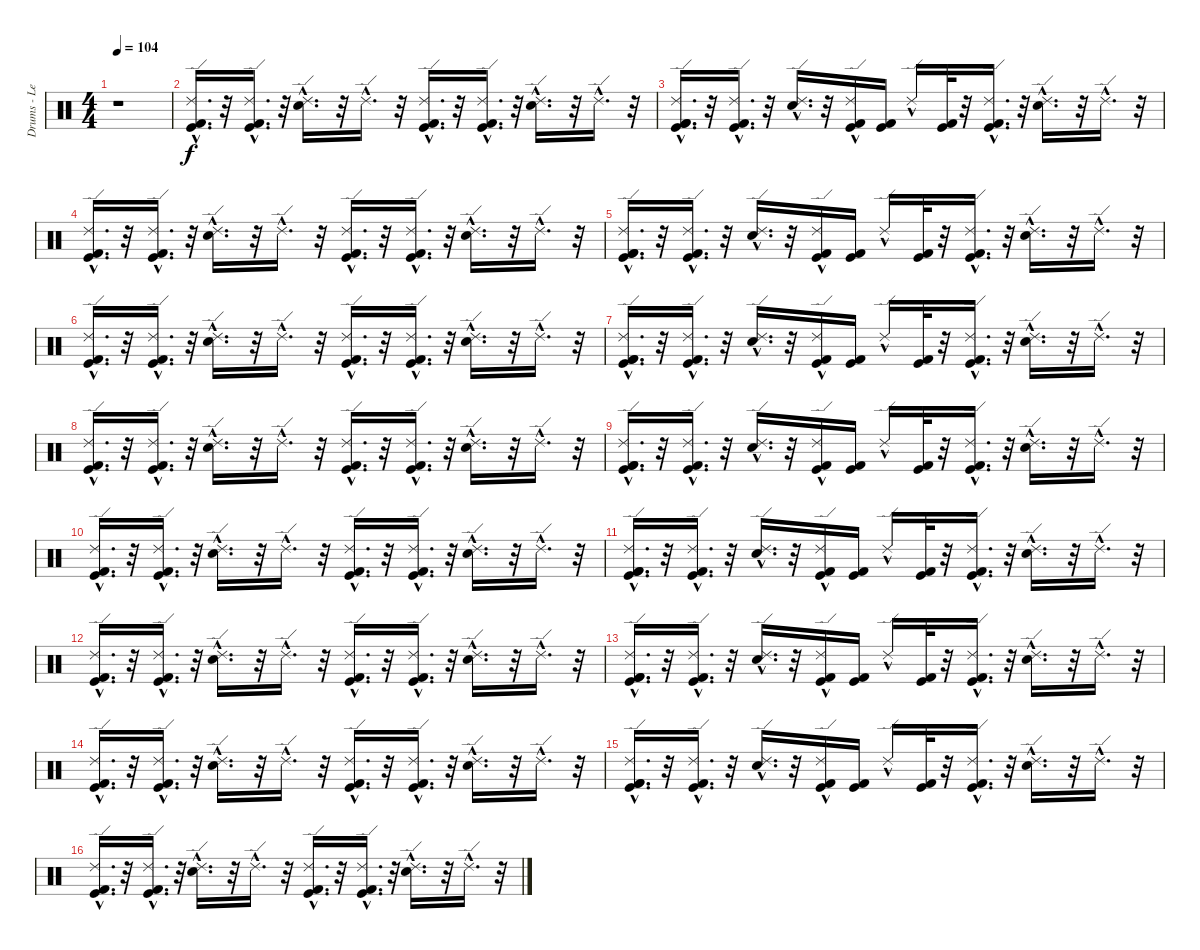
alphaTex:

\track ("Drums - Les Claypool" "Drums - Le") {instrument percussion}
\staff {score}
\articulation defaults
\ts (4 4)
\tempo 104
\clef neutral
\ks c
r.1{dy f} |
("Ride (edge) 2"{hac} "Kick (hit) 2"{hac} "Kick (hit)"{hac}).16{d} r.32 ("Kick (hit) 2"{hac} "Ride (edge) 2"{hac} "Kick (hit)"{hac}).16{d} r.32 ("Ride (edge) 2"{hac} "Snare (hit) 2"{hac}).16{d} r.32 "Ride (edge) 2"{hac}.16{d} r.32 ("Kick (hit) 2"{hac} "Ride (edge) 2"{hac} "Kick (hit)"{hac}).16{d} r.32 ("Kick (hit) 2"{hac} "Kick (hit)"{hac} "Ride (edge) 2"{hac}).16{d} r.32 ("Ride (edge) 2"{hac} "Snare (hit) 2"{hac}).16{d} r.32 "Ride (edge) 2"{hac}.16{d} r.32 |
("Kick (hit) 2"{hac} "Ride (edge) 2"{hac} "Kick (hit) 2"{hac} "Kick (hit)"{hac}).16{d} r.32 ("Ride (edge) 2"{hac} "Kick (hit) 2"{hac} "Kick (hit)"{hac}).16{d} r.32 ("Ride (edge) 2"{hac} "Snare (hit) 2"{hac}).16{d} r.32 ("Kick (hit) 2" "Kick (hit)" "Ride (edge) 2"{hac}).16 ("Kick (hit) 2" "Kick (hit)").16 "Ride (edge) 2"{hac}.16 ("Kick (hit) 2" "Kick (hit)").32 r.32 ("Kick (hit) 2"{hac} "Kick (hit)" "Ride (edge) 2"{hac}).16{d} r.32 ("Snare (hit) 2"{hac} "Ride (edge) 2"{hac}).16{d} r.32 "Ride (edge) 2"{hac}.16{d} r.32 |
("Ride (edge) 2"{hac} "Kick (hit) 2"{hac} "Kick (hit)"{hac}).16{d} r.32 ("Kick (hit) 2"{hac} "Ride (edge) 2"{hac} "Kick (hit)"{hac}).16{d} r.32 ("Ride (edge) 2"{hac} "Snare (hit) 2"{hac}).16{d} r.32 "Ride (edge) 2"{hac}.16{d} r.32 ("Kick (hit) 2"{hac} "Ride (edge) 2"{hac} "Kick (hit)"{hac}).16{d} r.32 ("Kick (hit) 2"{hac} "Kick (hit)"{hac} "Ride (edge) 2"{hac}).16{d} r.32 ("Ride (edge) 2"{hac} "Snare (hit) 2"{hac}).16{d} r.32 "Ride (edge) 2"{hac}.16{d} r.32 |
("Kick (hit) 2"{hac} "Ride (edge) 2"{hac} "Kick (hit) 2"{hac} "Kick (hit)"{hac}).16{d} r.32 ("Ride (edge) 2"{hac} "Kick (hit) 2"{hac} "Kick (hit)"{hac}).16{d} r.32 ("Ride (edge) 2"{hac} "Snare (hit) 2"{hac}).16{d} r.32 ("Kick (hit) 2" "Kick (hit)" "Ride (edge) 2"{hac}).16 ("Kick (hit) 2" "Kick (hit)").16 "Ride (edge) 2"{hac}.16 ("Kick (hit) 2" "Kick (hit)").32 r.32 ("Kick (hit) 2"{hac} "Kick (hit)" "Ride (edge) 2"{hac}).16{d} r.32 ("Ride (edge) 2"{hac} "Snare (hit) 2"{hac}).16{d} r.32 "Ride (edge) 2"{hac}.16{d} r.32 |
("Ride (edge) 2"{hac} "Kick (hit) 2"{hac} "Kick (hit)"{hac}).16{d} r.32 ("Kick (hit) 2"{hac} "Ride (edge) 2"{hac} "Kick (hit)"{hac}).16{d} r.32 ("Ride (edge) 2"{hac} "Snare (hit) 2"{hac}).16{d} r.32 "Ride (edge) 2"{hac}.16{d} r.32 ("Kick (hit) 2"{hac} "Ride (edge) 2"{hac} "Kick (hit)"{hac}).16{d} r.32 ("Kick (hit) 2"{hac} "Kick (hit)"{hac} "Ride (edge) 2"{hac}).16{d} r.32 ("Ride (edge) 2"{hac} "Snare (hit) 2"{hac}).16{d} r.32 "Ride (edge) 2"{hac}.16{d} r.32 |
("Kick (hit) 2"{hac} "Ride (edge) 2"{hac} "Kick (hit) 2"{hac} "Kick (hit)"{hac}).16{d} r.32 ("Ride (edge) 2"{hac} "Kick (hit) 2"{hac} "Kick (hit)"{hac}).16{d} r.32 ("Ride (edge) 2"{hac} "Snare (hit) 2"{hac}).16{d} r.32 ("Kick (hit) 2" "Kick (hit)" "Ride (edge) 2"{hac}).16 ("Kick (hit) 2" "Kick (hit)").16 "Ride (edge) 2"{hac}.16 ("Kick (hit) 2" "Kick (hit)").32 r.32 ("Kick (hit) 2"{hac} "Kick (hit)" "Ride (edge) 2"{hac}).16{d} r.32 ("Ride (edge) 2"{hac} "Snare (hit) 2"{hac}).16{d} r.32 "Ride (edge) 2"{hac}.16{d} r.32 |
("Ride (edge) 2"{hac} "Kick (hit) 2"{hac} "Kick (hit)"{hac}).16{d} r.32 ("Kick (hit) 2"{hac} "Ride (edge) 2"{hac} "Kick (hit)"{hac}).16{d} r.32 ("Ride (edge) 2"{hac} "Snare (hit) 2"{hac}).16{d} r.32 "Ride (edge) 2"{hac}.16{d} r.32 ("Kick (hit) 2"{hac} "Ride (edge) 2"{hac} "Kick (hit)"{hac}).16{d} r.32 ("Kick (hit) 2"{hac} "Kick (hit)"{hac} "Ride (edge) 2"{hac}).16{d} r.32 ("Ride (edge) 2"{hac} "Snare (hit) 2"{hac}).16{d} r.32 "Ride (edge) 2"{hac}.16{d} r.32 |
("Kick (hit) 2"{hac} "Ride (edge) 2"{hac} "Kick (hit) 2"{hac} "Kick (hit)"{hac}).16{d} r.32 ("Ride (edge) 2"{hac} "Kick (hit) 2"{hac} "Kick (hit)"{hac}).16{d} r.32 ("Ride (edge) 2"{hac} "Snare (hit) 2"{hac}).16{d} r.32 ("Kick (hit) 2" "Kick (hit)" "Ride (edge) 2"{hac}).16 ("Kick (hit) 2" "Kick (hit)").16 "Ride (edge) 2"{hac}.16 ("Kick (hit) 2" "Kick (hit)").32 r.32 ("Kick (hit) 2"{hac} "Kick (hit)" "Ride (edge) 2"{hac}).16{d} r.32 ("Ride (edge) 2"{hac} "Snare (hit) 2"{hac}).16{d} r.32 "Ride (edge) 2"{hac}.16{d} r.32 |
("Ride (edge) 2"{hac} "Kick (hit) 2"{hac} "Kick (hit)"{hac}).16{d} r.32 ("Kick (hit) 2"{hac} "Ride (edge) 2"{hac} "Kick (hit)"{hac}).16{d} r.32 ("Ride (edge) 2"{hac} "Snare (hit) 2"{hac}).16{d} r.32 "Ride (edge) 2"{hac}.16{d} r.32 ("Kick (hit) 2"{hac} "Ride (edge) 2"{hac} "Kick (hit)"{hac}).16{d} r.32 ("Kick (hit) 2"{hac} "Kick (hit)"{hac} "Ride (edge) 2"{hac}).16{d} r.32 ("Ride (edge) 2"{hac} "Snare (hit) 2"{hac}).16{d} r.32 "Ride (edge) 2"{hac}.16{d} r.32 |
("Kick (hit) 2"{hac} "Ride (edge) 2"{hac} "Kick (hit) 2"{hac} "Kick (hit)"{hac}).16{d} r.32 ("Ride (edge) 2"{hac} "Kick (hit) 2"{hac} "Kick (hit)"{hac}).16{d} r.32 ("Ride (edge) 2"{hac} "Snare (hit) 2"{hac}).16{d} r.32 ("Kick (hit) 2" "Kick (hit)" "Ride (edge) 2"{hac}).16 ("Kick (hit) 2" "Kick (hit)").16 "Ride (edge) 2"{hac}.16 ("Kick (hit) 2" "Kick (hit)").32 r.32 ("Kick (hit) 2"{hac} "Kick (hit)" "Ride (edge) 2"{hac}).16{d} r.32 ("Ride (edge) 2"{hac} "Snare (hit) 2"{hac}).16{d} r.32 "Ride (edge) 2"{hac}.16{d} r.32 |
("Ride (edge) 2"{hac} "Kick (hit) 2"{hac} "Kick (hit)"{hac}).16{d} r.32 ("Kick (hit) 2"{hac} "Ride (edge) 2"{hac} "Kick (hit)"{hac}).16{d} r.32 ("Ride (edge) 2"{hac} "Snare (hit) 2"{hac}).16{d} r.32 "Ride (edge) 2"{hac}.16{d} r.32 ("Kick (hit) 2"{hac} "Ride (edge) 2"{hac} "Kick (hit)"{hac}).16{d} r.32 ("Kick (hit) 2"{hac} "Kick (hit)"{hac} "Ride (edge) 2"{hac}).16{d} r.32 ("Ride (edge) 2"{hac} "Snare (hit) 2"{hac}).16{d} r.32 "Ride (edge) 2"{hac}.16{d} r.32 |
("Kick (hit) 2"{hac} "Ride (edge) 2"{hac} "Kick (hit) 2"{hac} "Kick (hit)"{hac}).16{d} r.32 ("Ride (edge) 2"{hac} "Kick (hit) 2"{hac} "Kick (hit)"{hac}).16{d} r.32 ("Ride (edge) 2"{hac} "Snare (hit) 2"{hac}).16{d} r.32 ("Kick (hit) 2" "Kick (hit)" "Ride (edge) 2"{hac}).16 ("Kick (hit) 2" "Kick (hit)").16 "Ride (edge) 2"{hac}.16 ("Kick (hit) 2" "Kick (hit)").32 r.32 ("Kick (hit) 2"{hac} "Kick (hit)" "Ride (edge) 2"{hac}).16{d} r.32 ("Ride (edge) 2"{hac} "Snare (hit) 2"{hac}).16{d} r.32 "Ride (edge) 2"{hac}.16{d} r.32 |
("Ride (edge) 2"{hac} "Kick (hit) 2"{hac} "Kick (hit)"{hac}).16{d} r.32 ("Kick (hit) 2"{hac} "Ride (edge) 2"{hac} "Kick (hit)"{hac}).16{d} r.32 ("Ride (edge) 2"{hac} "Snare (hit) 2"{hac}).16{d} r.32 "Ride (edge) 2"{hac}.16{d} r.32 ("Kick (hit) 2"{hac} "Ride (edge) 2"{hac} "Kick (hit)"{hac}).16{d} r.32 ("Kick (hit) 2"{hac} "Kick (hit)"{hac} "Ride (edge) 2"{hac}).16{d} r.32 ("Ride (edge) 2"{hac} "Snare (hit) 2"{hac}).16{d} r.32 "Ride (edge) 2"{hac}.16{d} r.32 |
("Kick (hit) 2"{hac} "Ride (edge) 2"{hac} "Kick (hit) 2"{hac} "Kick (hit)"{hac}).16{d} r.32 ("Ride (edge) 2"{hac} "Kick (hit) 2"{hac} "Kick (hit)"{hac}).16{d} r.32 ("Ride (edge) 2"{hac} "Snare (hit) 2"{hac}).16{d} r.32 ("Kick (hit) 2" "Kick (hit)" "Ride (edge) 2"{hac}).16 ("Kick (hit) 2" "Kick (hit)").16 "Ride (edge) 2"{hac}.16 ("Kick (hit) 2" "Kick (hit)").32 r.32 ("Kick (hit) 2"{hac} "Kick (hit)" "Ride (edge) 2"{hac}).16{d} r.32 ("Ride (edge) 2"{hac} "Snare (hit) 2"{hac}).16{d} r.32 "Ride (edge) 2"{hac}.16{d} r.32 |
("Ride (edge) 2"{hac} "Kick (hit) 2"{hac} "Kick (hit)"{hac}).16{d} r.32 ("Kick (hit) 2"{hac} "Ride (edge) 2"{hac} "Kick (hit)"{hac}).16{d} r.32 ("Ride (edge) 2"{hac} "Snare (hit) 2"{hac}).16{d} r.32 "Ride (edge) 2"{hac}.16{d} r.32 ("Kick (hit) 2"{hac} "Ride (edge) 2"{hac} "Kick (hit)"{hac}).16{d} r.32 ("Kick (hit) 2"{hac} "Kick (hit)"{hac} "Ride (edge) 2"{hac}).16{d} r.32 ("Ride (edge) 2"{hac} "Snare (hit) 2"{hac}).16{d} r.32 "Ride (edge) 2"{hac}.16{d} r.32
